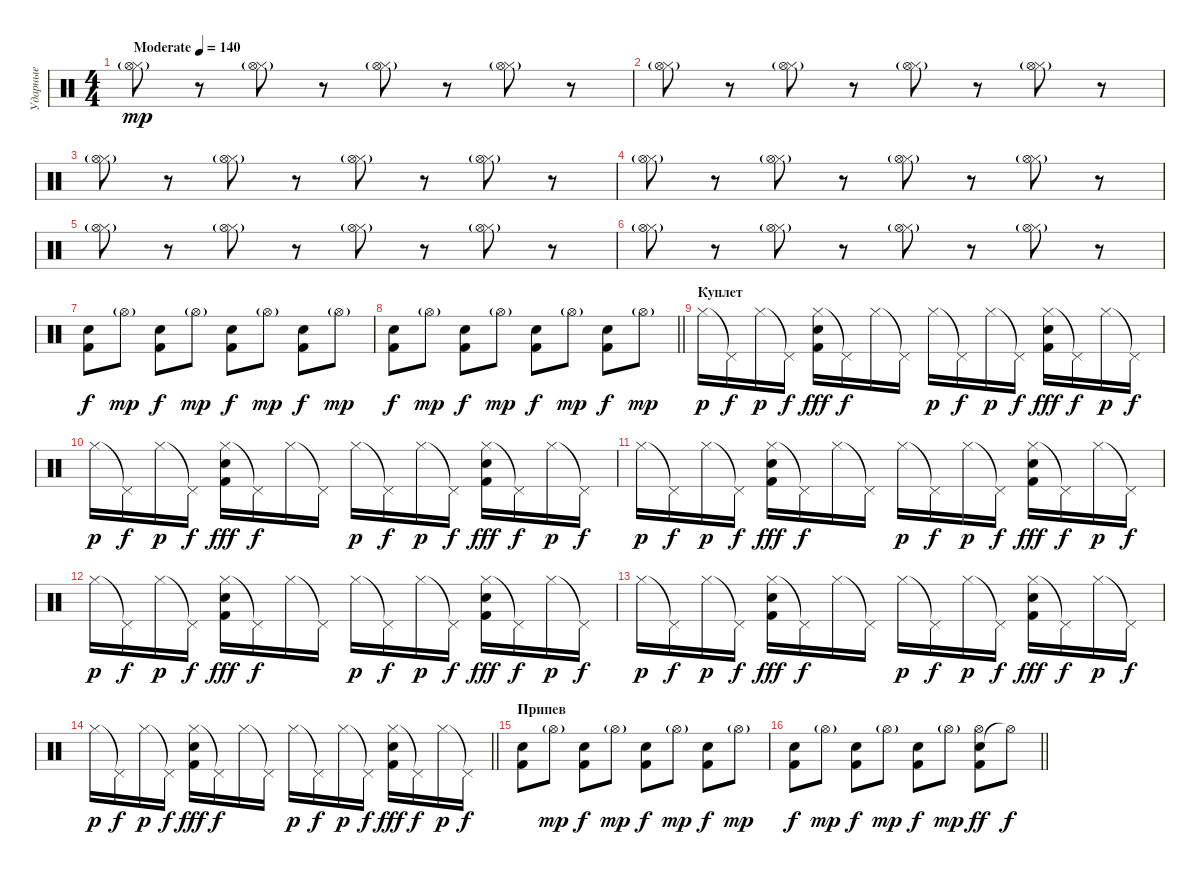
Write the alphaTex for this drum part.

\track ("Ударные" "Ударные") {instrument percussion}
\staff {score}
\articulation defaults
\ts (4 4)
\tempo (140 "Moderate")
\clef neutral
\ks c
("Hi-Hat (closed)" "Hi-Hat (open)"{g}).8{dy mp} r.8 ("Hi-Hat (closed)" "Hi-Hat (open)"{g}).8 r.8 ("Hi-Hat (closed)" "Hi-Hat (open)"{g}).8 r.8 ("Hi-Hat (closed)" "Hi-Hat (open)"{g}).8 r.8 |
("Hi-Hat (closed)" "Hi-Hat (open)"{g}).8 r.8 ("Hi-Hat (closed)" "Hi-Hat (open)"{g}).8 r.8 ("Hi-Hat (closed)" "Hi-Hat (open)"{g}).8 r.8 ("Hi-Hat (closed)" "Hi-Hat (open)"{g}).8 r.8 |
("Hi-Hat (closed)" "Hi-Hat (open)"{g}).8 r.8 ("Hi-Hat (closed)" "Hi-Hat (open)"{g}).8 r.8 ("Hi-Hat (closed)" "Hi-Hat (open)"{g}).8 r.8 ("Hi-Hat (closed)" "Hi-Hat (open)"{g}).8 r.8 |
("Hi-Hat (closed)" "Hi-Hat (open)"{g}).8 r.8 ("Hi-Hat (closed)" "Hi-Hat (open)"{g}).8 r.8 ("Hi-Hat (closed)" "Hi-Hat (open)"{g}).8 r.8 ("Hi-Hat (closed)" "Hi-Hat (open)"{g}).8 r.8 |
("Hi-Hat (closed)" "Hi-Hat (open)"{g}).8 r.8 ("Hi-Hat (closed)" "Hi-Hat (open)"{g}).8 r.8 ("Hi-Hat (closed)" "Hi-Hat (open)"{g}).8 r.8 ("Hi-Hat (closed)" "Hi-Hat (open)"{g}).8 r.8 |
("Hi-Hat (closed)" "Hi-Hat (open)"{g}).8 r.8 ("Hi-Hat (closed)" "Hi-Hat (open)"{g}).8 r.8 ("Hi-Hat (closed)" "Hi-Hat (open)"{g}).8 r.8 ("Hi-Hat (closed)" "Hi-Hat (open)"{g}).8 r.8 |
("Snare (hit) 2" "Kick (hit) 2").8{dy f} "Hi-Hat (open)"{g}.8{dy mp} ("Snare (hit) 2" "Kick (hit) 2").8{dy f} "Hi-Hat (open)"{g}.8{dy mp} ("Snare (hit) 2" "Kick (hit) 2").8{dy f} "Hi-Hat (open)"{g}.8{dy mp} ("Snare (hit) 2" "Kick (hit) 2").8{dy f} "Hi-Hat (open)"{g}.8{dy mp} |
\barLineRight lightlight
("Snare (hit) 2" "Kick (hit) 2").8{dy f} "Hi-Hat (open)"{g}.8{dy mp} ("Snare (hit) 2" "Kick (hit) 2").8{dy f} "Hi-Hat (open)"{g}.8{dy mp} ("Snare (hit) 2" "Kick (hit) 2").8{dy f} "Hi-Hat (open)"{g}.8{dy mp} ("Snare (hit) 2" "Kick (hit) 2").8{dy f} "Hi-Hat (open)"{g}.8{dy mp} |
\section ("" "Куплет")
"Hi-Hat (closed)".16{dy p} "Pedal Hi-Hat (hit)"{t}.16{dy f} "Hi-Hat (closed)".16{dy p} "Pedal Hi-Hat (hit)"{t}.16{dy f} ("Hi-Hat (closed)" "Electric Snare (hit)" "Kick (hit) 2").16{dy fff} "Pedal Hi-Hat (hit)"{t}.16{dy f} "Hi-Hat (closed)".16 "Pedal Hi-Hat (hit)"{t}.16 "Hi-Hat (closed)".16{dy p} "Pedal Hi-Hat (hit)"{t}.16{dy f} "Hi-Hat (closed)".16{dy p} "Pedal Hi-Hat (hit)"{t}.16{dy f} ("Hi-Hat (closed)" "Electric Snare (hit)" "Kick (hit) 2").16{dy fff} "Pedal Hi-Hat (hit)"{t}.16{dy f} "Hi-Hat (closed)".16{dy p} "Pedal Hi-Hat (hit)"{t}.16{dy f} |
"Hi-Hat (closed)".16{dy p} "Pedal Hi-Hat (hit)"{t}.16{dy f} "Hi-Hat (closed)".16{dy p} "Pedal Hi-Hat (hit)"{t}.16{dy f} ("Hi-Hat (closed)" "Electric Snare (hit)" "Kick (hit) 2").16{dy fff} "Pedal Hi-Hat (hit)"{t}.16{dy f} "Hi-Hat (closed)".16 "Pedal Hi-Hat (hit)"{t}.16 "Hi-Hat (closed)".16{dy p} "Pedal Hi-Hat (hit)"{t}.16{dy f} "Hi-Hat (closed)".16{dy p} "Pedal Hi-Hat (hit)"{t}.16{dy f} ("Hi-Hat (closed)" "Electric Snare (hit)" "Kick (hit) 2").16{dy fff} "Pedal Hi-Hat (hit)"{t}.16{dy f} "Hi-Hat (closed)".16{dy p} "Pedal Hi-Hat (hit)"{t}.16{dy f} |
"Hi-Hat (closed)".16{dy p} "Pedal Hi-Hat (hit)"{t}.16{dy f} "Hi-Hat (closed)".16{dy p} "Pedal Hi-Hat (hit)"{t}.16{dy f} ("Hi-Hat (closed)" "Electric Snare (hit)" "Kick (hit) 2").16{dy fff} "Pedal Hi-Hat (hit)"{t}.16{dy f} "Hi-Hat (closed)".16 "Pedal Hi-Hat (hit)"{t}.16 "Hi-Hat (closed)".16{dy p} "Pedal Hi-Hat (hit)"{t}.16{dy f} "Hi-Hat (closed)".16{dy p} "Pedal Hi-Hat (hit)"{t}.16{dy f} ("Hi-Hat (closed)" "Electric Snare (hit)" "Kick (hit) 2").16{dy fff} "Pedal Hi-Hat (hit)"{t}.16{dy f} "Hi-Hat (closed)".16{dy p} "Pedal Hi-Hat (hit)"{t}.16{dy f} |
"Hi-Hat (closed)".16{dy p} "Pedal Hi-Hat (hit)"{t}.16{dy f} "Hi-Hat (closed)".16{dy p} "Pedal Hi-Hat (hit)"{t}.16{dy f} ("Hi-Hat (closed)" "Electric Snare (hit)" "Kick (hit) 2").16{dy fff} "Pedal Hi-Hat (hit)"{t}.16{dy f} "Hi-Hat (closed)".16 "Pedal Hi-Hat (hit)"{t}.16 "Hi-Hat (closed)".16{dy p} "Pedal Hi-Hat (hit)"{t}.16{dy f} "Hi-Hat (closed)".16{dy p} "Pedal Hi-Hat (hit)"{t}.16{dy f} ("Hi-Hat (closed)" "Electric Snare (hit)" "Kick (hit) 2").16{dy fff} "Pedal Hi-Hat (hit)"{t}.16{dy f} "Hi-Hat (closed)".16{dy p} "Pedal Hi-Hat (hit)"{t}.16{dy f} |
"Hi-Hat (closed)".16{dy p} "Pedal Hi-Hat (hit)"{t}.16{dy f} "Hi-Hat (closed)".16{dy p} "Pedal Hi-Hat (hit)"{t}.16{dy f} ("Hi-Hat (closed)" "Electric Snare (hit)" "Kick (hit) 2").16{dy fff} "Pedal Hi-Hat (hit)"{t}.16{dy f} "Hi-Hat (closed)".16 "Pedal Hi-Hat (hit)"{t}.16 "Hi-Hat (closed)".16{dy p} "Pedal Hi-Hat (hit)"{t}.16{dy f} "Hi-Hat (closed)".16{dy p} "Pedal Hi-Hat (hit)"{t}.16{dy f} ("Hi-Hat (closed)" "Electric Snare (hit)" "Kick (hit) 2").16{dy fff} "Pedal Hi-Hat (hit)"{t}.16{dy f} "Hi-Hat (closed)".16{dy p} "Pedal Hi-Hat (hit)"{t}.16{dy f} |
\barLineRight lightlight "Hi-Hat (closed)".16{dy p} "Pedal Hi-Hat (hit)"{t}.16{dy f} "Hi-Hat (closed)".16{dy p} "Pedal Hi-Hat (hit)"{t}.16{dy f}
("Hi-Hat (closed)" "Electric Snare (hit)" "Kick (hit) 2").16{dy fff} "Pedal Hi-Hat (hit)"{t}.16{dy f} "Hi-Hat (closed)".16 "Pedal Hi-Hat (hit)"{t}.16 "Hi-Hat (closed)".16{dy p} "Pedal Hi-Hat (hit)"{t}.16{dy f} "Hi-Hat (closed)".16{dy p} "Pedal Hi-Hat (hit)"{t}.16{dy f} ("Hi-Hat (closed)" "Electric Snare (hit)" "Kick (hit) 2").16{dy fff} "Pedal Hi-Hat (hit)"{t}.16{dy f} "Hi-Hat (closed)".16{dy p} "Pedal Hi-Hat (hit)"{t}.16{dy f} |
\section ("" "Припев")
("Snare (hit) 2" "Kick (hit) 2").8 "Hi-Hat (open)"{g}.8{dy mp} ("Snare (hit) 2" "Kick (hit) 2").8{dy f} "Hi-Hat (open)"{g}.8{dy mp} ("Snare (hit) 2" "Kick (hit) 2").8{dy f} "Hi-Hat (open)"{g}.8{dy mp} ("Snare (hit) 2" "Kick (hit) 2").8{dy f} "Hi-Hat (open)"{g}.8{dy mp} |
\barLineRight lightlight
("Snare (hit) 2" "Kick (hit) 2").8{dy f} "Hi-Hat (open)"{g}.8{dy mp} ("Snare (hit) 2" "Kick (hit) 2").8{dy f} "Hi-Hat (open)"{g}.8{dy mp} ("Snare (hit) 2" "Kick (hit) 2").8{dy f} "Hi-Hat (open)"{g}.8{dy mp} ("Snare (hit) 2" "Hi-Hat (open)" "Kick (hit) 2").8{dy ff} "Hi-Hat (open)"{t}.8{dy f}
